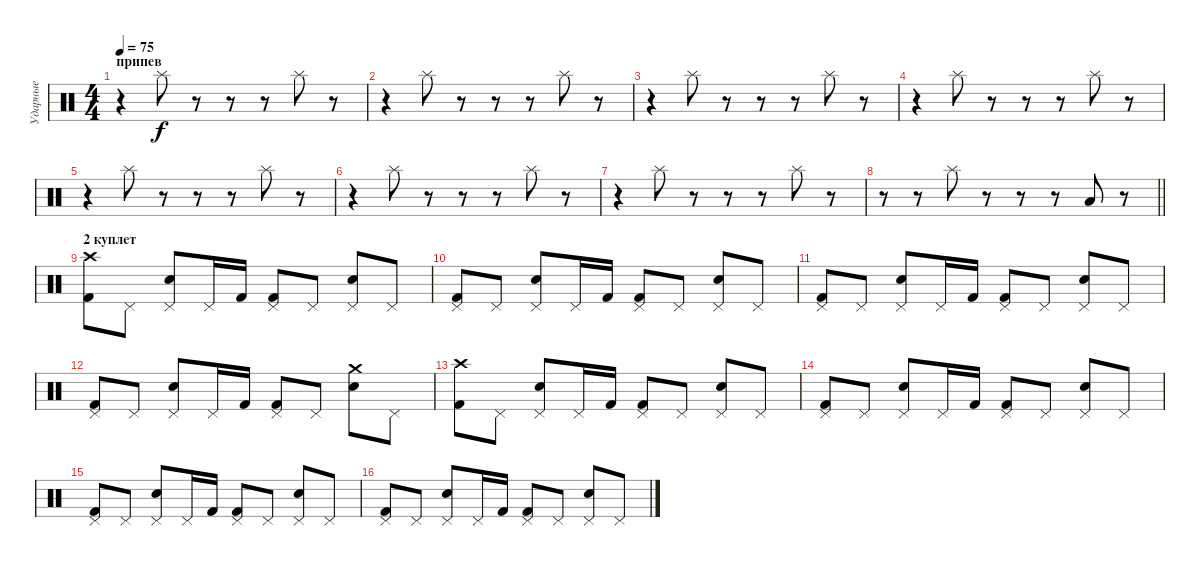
\track ("Ударные" "Ударные") {instrument percussion}
\staff {score}
\articulation defaults
\ts (4 4)
\section ("" "припев")
\tempo 75
\clef neutral
\ks c
r.4{dy f} "Splash (hit)".8 r.8 r.8 r.8 "Splash (hit)".8 r.8 |
r.4 "Splash (hit)".8 r.8 r.8 r.8 "Splash (hit)".8 r.8 |
r.4 "Splash (hit)".8 r.8 r.8 r.8 "Splash (hit)".8 r.8 |
r.4 "Splash (hit)".8 r.8 r.8 r.8 "Splash (hit)".8 r.8 |
r.4 "Splash (hit)".8 r.8 r.8 r.8 "Splash (hit)".8 r.8 |
r.4 "Splash (hit)".8 r.8 r.8 r.8 "Splash (hit)".8 r.8 |
r.4 "Splash (hit)".8 r.8 r.8 r.8 "Splash (hit)".8 r.8 |
\barLineRight lightlight
r.8 r.8 "Splash (hit)".8 r.8 r.8 r.8 "Low Tom (hit)".8 r.8 |
\section ("" "2 куплет")
("Crash high (hit)" "Kick (hit) 2").8 "Pedal Hi-Hat (hit)".8 ("Pedal Hi-Hat (hit)" "Snare (hit) 2").8 "Pedal Hi-Hat (hit)".16 "Kick (hit) 2".16 ("Pedal Hi-Hat (hit)" "Kick (hit) 2").8 "Pedal Hi-Hat (hit)".8 ("Pedal Hi-Hat (hit)" "Snare (hit) 2").8 "Pedal Hi-Hat (hit)".8 |
("Pedal Hi-Hat (hit)" "Kick (hit) 2").8 "Pedal Hi-Hat (hit)".8 ("Pedal Hi-Hat (hit)" "Snare (hit) 2").8 "Pedal Hi-Hat (hit)".16 "Kick (hit) 2".16 ("Pedal Hi-Hat (hit)" "Kick (hit) 2").8 "Pedal Hi-Hat (hit)".8 ("Pedal Hi-Hat (hit)" "Snare (hit) 2").8 "Pedal Hi-Hat (hit)".8 |
("Pedal Hi-Hat (hit)" "Kick (hit) 2").8 "Pedal Hi-Hat (hit)".8 ("Pedal Hi-Hat (hit)" "Snare (hit) 2").8 "Pedal Hi-Hat (hit)".16 "Kick (hit) 2".16 ("Pedal Hi-Hat (hit)" "Kick (hit) 2").8 "Pedal Hi-Hat (hit)".8 ("Pedal Hi-Hat (hit)" "Snare (hit) 2").8 "Pedal Hi-Hat (hit)".8 |
("Pedal Hi-Hat (hit)" "Kick (hit) 2").8 "Pedal Hi-Hat (hit)".8 ("Pedal Hi-Hat (hit)" "Snare (hit) 2").8 "Pedal Hi-Hat (hit)".16 "Kick (hit) 2".16 ("Pedal Hi-Hat (hit)" "Kick (hit) 2").8 "Pedal Hi-Hat (hit)".8 ("Crash medium (hit)" "Snare (hit) 2").8 "Pedal Hi-Hat (hit)".8 |
("Crash high (hit)" "Kick (hit) 2").8 "Pedal Hi-Hat (hit)".8 ("Pedal Hi-Hat (hit)" "Snare (hit) 2").8 "Pedal Hi-Hat (hit)".16 "Kick (hit) 2".16 ("Pedal Hi-Hat (hit)" "Kick (hit) 2").8 "Pedal Hi-Hat (hit)".8 ("Pedal Hi-Hat (hit)" "Snare (hit) 2").8 "Pedal Hi-Hat (hit)".8 |
("Pedal Hi-Hat (hit)" "Kick (hit) 2").8 "Pedal Hi-Hat (hit)".8 ("Pedal Hi-Hat (hit)" "Snare (hit) 2").8 "Pedal Hi-Hat (hit)".16 "Kick (hit) 2".16 ("Pedal Hi-Hat (hit)" "Kick (hit) 2").8 "Pedal Hi-Hat (hit)".8 ("Pedal Hi-Hat (hit)" "Snare (hit) 2").8 "Pedal Hi-Hat (hit)".8 |
("Pedal Hi-Hat (hit)" "Kick (hit) 2").8 "Pedal Hi-Hat (hit)".8 ("Pedal Hi-Hat (hit)" "Snare (hit) 2").8 "Pedal Hi-Hat (hit)".16 "Kick (hit) 2".16 ("Pedal Hi-Hat (hit)" "Kick (hit) 2").8 "Pedal Hi-Hat (hit)".8 ("Pedal Hi-Hat (hit)" "Snare (hit) 2").8 "Pedal Hi-Hat (hit)".8 |
("Pedal Hi-Hat (hit)" "Kick (hit) 2").8 "Pedal Hi-Hat (hit)".8 ("Pedal Hi-Hat (hit)" "Snare (hit) 2").8 "Pedal Hi-Hat (hit)".16 "Kick (hit) 2".16 ("Pedal Hi-Hat (hit)" "Kick (hit) 2").8 "Pedal Hi-Hat (hit)".8 ("Pedal Hi-Hat (hit)" "Snare (hit) 2").8 "Pedal Hi-Hat (hit)".8
